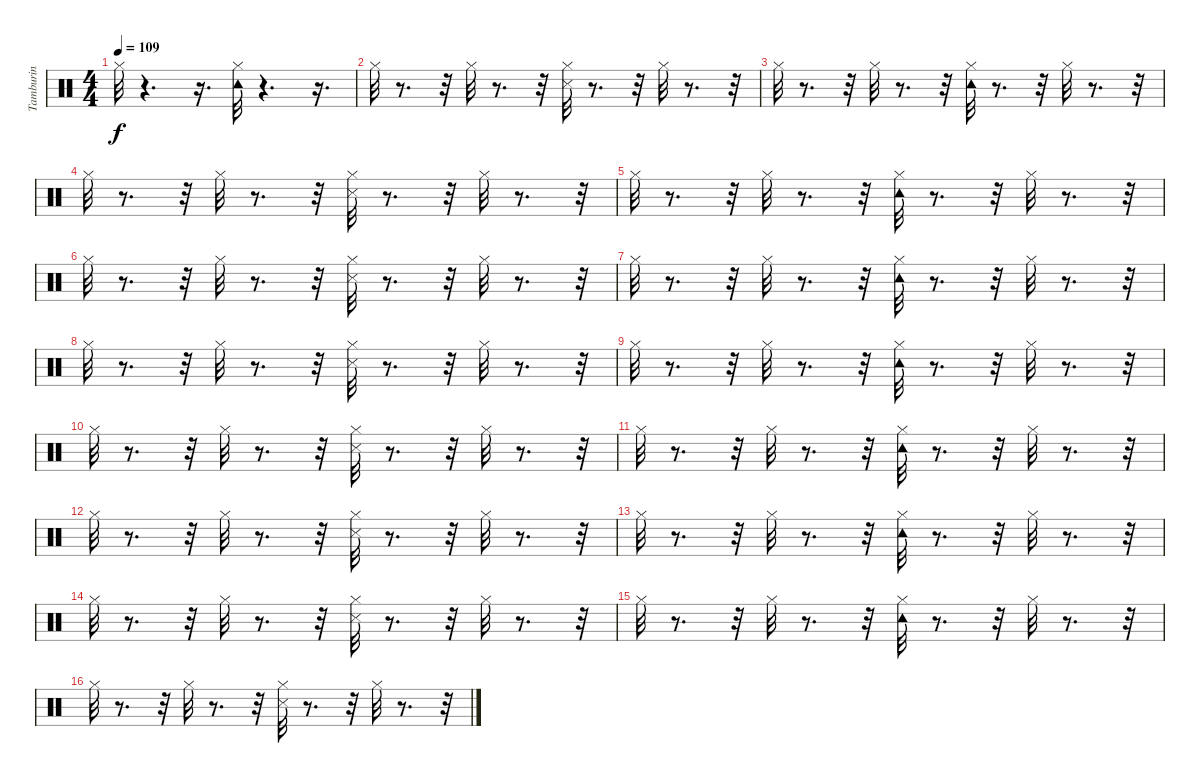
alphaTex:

\track ("Tamburin" "Tamburin") {instrument percussion}
\staff {score}
\articulation defaults
\ts (4 4)
\tempo 109
\clef neutral
\ks c "Hi-Hat (closed)".32{dy f}
r.4{d} r.16{d} ("Hi-Hat (closed)" "Tambourine (hit)").32 r.4{d} r.16{d} |
"Hi-Hat (closed)".32 r.8{d} r.32 "Hi-Hat (closed)".32 r.8{d} r.32 ("Snare (side stick) 3" "Hi-Hat (closed)").32 r.8{d} r.32 "Hi-Hat (closed)".32 r.8{d} r.32 |
"Hi-Hat (closed)".32 r.8{d} r.32 "Hi-Hat (closed)".32 r.8{d} r.32 ("Hi-Hat (closed)" "Tambourine (hit)").32 r.8{d} r.32 "Hi-Hat (closed)".32 r.8{d} r.32 |
"Hi-Hat (closed)".32 r.8{d} r.32 "Hi-Hat (closed)".32 r.8{d} r.32 ("Snare (side stick) 3" "Hi-Hat (closed)").32 r.8{d} r.32 "Hi-Hat (closed)".32 r.8{d} r.32 |
"Hi-Hat (closed)".32 r.8{d} r.32 "Hi-Hat (closed)".32 r.8{d} r.32 ("Hi-Hat (closed)" "Tambourine (hit)").32 r.8{d} r.32 "Hi-Hat (closed)".32 r.8{d} r.32 |
"Hi-Hat (closed)".32 r.8{d} r.32 "Hi-Hat (closed)".32 r.8{d} r.32 ("Snare (side stick) 3" "Hi-Hat (closed)").32 r.8{d} r.32 "Hi-Hat (closed)".32 r.8{d} r.32 |
"Hi-Hat (closed)".32 r.8{d} r.32 "Hi-Hat (closed)".32 r.8{d} r.32 ("Hi-Hat (closed)" "Tambourine (hit)").32 r.8{d} r.32 "Hi-Hat (closed)".32 r.8{d} r.32 |
"Hi-Hat (closed)".32 r.8{d} r.32 "Hi-Hat (closed)".32 r.8{d} r.32 ("Snare (side stick) 3" "Hi-Hat (closed)").32 r.8{d} r.32 "Hi-Hat (closed)".32 r.8{d} r.32 |
"Hi-Hat (closed)".32 r.8{d} r.32 "Hi-Hat (closed)".32 r.8{d} r.32 ("Hi-Hat (closed)" "Tambourine (hit)").32 r.8{d} r.32 "Hi-Hat (closed)".32 r.8{d} r.32 |
"Hi-Hat (closed)".32 r.8{d} r.32 "Hi-Hat (closed)".32 r.8{d} r.32 ("Snare (side stick) 3" "Hi-Hat (closed)").32 r.8{d} r.32 "Hi-Hat (closed)".32 r.8{d} r.32 |
"Hi-Hat (closed)".32 r.8{d} r.32 "Hi-Hat (closed)".32 r.8{d} r.32 ("Hi-Hat (closed)" "Tambourine (hit)").32 r.8{d} r.32 "Hi-Hat (closed)".32 r.8{d} r.32 |
"Hi-Hat (closed)".32 r.8{d} r.32 "Hi-Hat (closed)".32 r.8{d} r.32 ("Snare (side stick) 3" "Hi-Hat (closed)").32 r.8{d} r.32 "Hi-Hat (closed)".32 r.8{d} r.32 |
"Hi-Hat (closed)".32 r.8{d} r.32 "Hi-Hat (closed)".32 r.8{d} r.32 ("Hi-Hat (closed)" "Tambourine (hit)").32 r.8{d} r.32 "Hi-Hat (closed)".32 r.8{d} r.32 |
"Hi-Hat (closed)".32 r.8{d} r.32 "Hi-Hat (closed)".32 r.8{d} r.32 ("Snare (side stick) 3" "Hi-Hat (closed)").32 r.8{d} r.32 "Hi-Hat (closed)".32 r.8{d} r.32 |
"Hi-Hat (closed)".32 r.8{d} r.32 "Hi-Hat (closed)".32 r.8{d} r.32 ("Hi-Hat (closed)" "Tambourine (hit)").32 r.8{d} r.32 "Hi-Hat (closed)".32 r.8{d} r.32 |
"Hi-Hat (closed)".32 r.8{d} r.32 "Hi-Hat (closed)".32 r.8{d} r.32 ("Snare (side stick) 3" "Hi-Hat (closed)").32 r.8{d} r.32 "Hi-Hat (closed)".32 r.8{d} r.32
